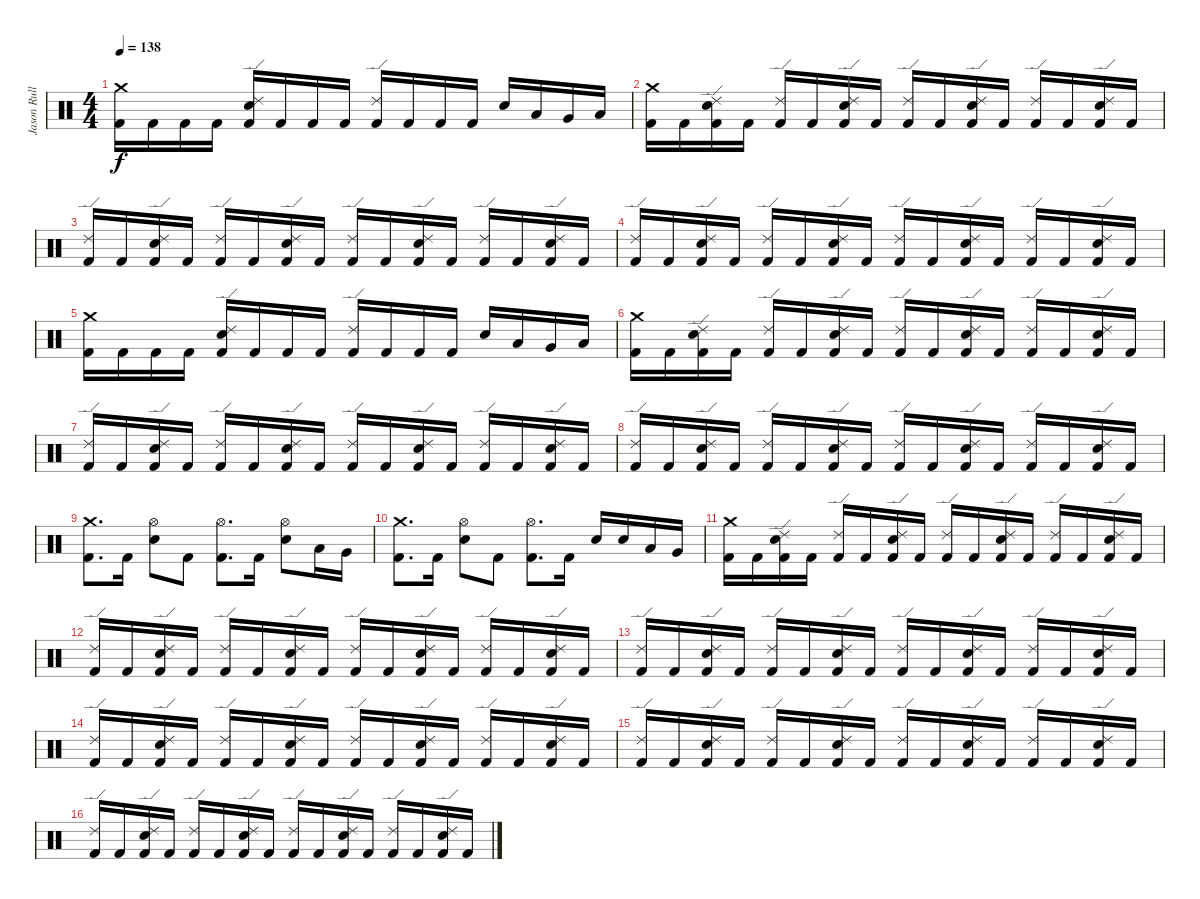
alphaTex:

\track ("Jason Rullo" "Jason Rull") {instrument percussion}
\staff {score}
\articulation defaults
\ts (4 4)
\tempo 138
\clef neutral
\ks c
("Crash medium (hit)" "Kick (hit) 2").16{dy f} "Kick (hit) 2".16 "Kick (hit) 2".16 "Kick (hit) 2".16 ("Ride (edge) 2" "Electric Snare (hit)" "Kick (hit) 2").16 "Kick (hit) 2".16 "Kick (hit) 2".16 "Kick (hit) 2".16 ("Ride (edge) 2" "Kick (hit) 2").16 "Kick (hit) 2".16 "Kick (hit) 2".16 "Kick (hit) 2".16 "Electric Snare (hit)".16 "Low Tom (hit)".16 "Very Low Tom (hit)".16 "Low Floor Tom (hit)".16 |
("Crash medium (hit)" "Kick (hit) 2").16 "Kick (hit) 2".16 ("Ride (edge) 2" "Electric Snare (hit)" "Kick (hit) 2").16 "Kick (hit) 2".16 ("Ride (edge) 2" "Kick (hit) 2").16 "Kick (hit) 2".16 ("Ride (edge) 2" "Electric Snare (hit)" "Kick (hit) 2").16 "Kick (hit) 2".16 ("Ride (edge) 2" "Kick (hit) 2").16 "Kick (hit) 2".16 ("Ride (edge) 2" "Electric Snare (hit)" "Kick (hit) 2").16 "Kick (hit) 2".16 ("Ride (edge) 2" "Kick (hit) 2").16 "Kick (hit) 2".16 ("Ride (edge) 2" "Electric Snare (hit)" "Kick (hit) 2").16 "Kick (hit) 2".16 |
("Ride (edge) 2" "Kick (hit) 2").16 "Kick (hit) 2".16 ("Ride (edge) 2" "Electric Snare (hit)" "Kick (hit) 2").16 "Kick (hit) 2".16 ("Ride (edge) 2" "Kick (hit) 2").16 "Kick (hit) 2".16 ("Ride (edge) 2" "Electric Snare (hit)" "Kick (hit) 2").16 "Kick (hit) 2".16 ("Ride (edge) 2" "Kick (hit) 2").16 "Kick (hit) 2".16 ("Ride (edge) 2" "Electric Snare (hit)" "Kick (hit) 2").16 "Kick (hit) 2".16 ("Ride (edge) 2" "Kick (hit) 2").16 "Kick (hit) 2".16 ("Ride (edge) 2" "Electric Snare (hit)" "Kick (hit) 2").16 "Kick (hit) 2".16 |
("Ride (edge) 2" "Kick (hit) 2").16 "Kick (hit) 2".16 ("Ride (edge) 2" "Electric Snare (hit)" "Kick (hit) 2").16 "Kick (hit) 2".16 ("Ride (edge) 2" "Kick (hit) 2").16 "Kick (hit) 2".16 ("Ride (edge) 2" "Electric Snare (hit)" "Kick (hit) 2").16 "Kick (hit) 2".16 ("Ride (edge) 2" "Kick (hit) 2").16 "Kick (hit) 2".16 ("Ride (edge) 2" "Electric Snare (hit)" "Kick (hit) 2").16 "Kick (hit) 2".16 ("Ride (edge) 2" "Kick (hit) 2").16 "Kick (hit) 2".16 ("Ride (edge) 2" "Electric Snare (hit)" "Kick (hit) 2").16 "Kick (hit) 2".16 |
("Crash medium (hit)" "Kick (hit) 2").16 "Kick (hit) 2".16 "Kick (hit) 2".16 "Kick (hit) 2".16 ("Ride (edge) 2" "Electric Snare (hit)" "Kick (hit) 2").16 "Kick (hit) 2".16 "Kick (hit) 2".16 "Kick (hit) 2".16 ("Ride (edge) 2" "Kick (hit) 2").16 "Kick (hit) 2".16 "Kick (hit) 2".16 "Kick (hit) 2".16 "Electric Snare (hit)".16 "Low Tom (hit)".16 "Very Low Tom (hit)".16 "Low Floor Tom (hit)".16 |
("Crash medium (hit)" "Kick (hit) 2").16 "Kick (hit) 2".16 ("Ride (edge) 2" "Electric Snare (hit)" "Kick (hit) 2").16 "Kick (hit) 2".16 ("Ride (edge) 2" "Kick (hit) 2").16 "Kick (hit) 2".16 ("Ride (edge) 2" "Electric Snare (hit)" "Kick (hit) 2").16 "Kick (hit) 2".16 ("Ride (edge) 2" "Kick (hit) 2").16 "Kick (hit) 2".16 ("Ride (edge) 2" "Electric Snare (hit)" "Kick (hit) 2").16 "Kick (hit) 2".16 ("Ride (edge) 2" "Kick (hit) 2").16 "Kick (hit) 2".16 ("Ride (edge) 2" "Electric Snare (hit)" "Kick (hit) 2").16 "Kick (hit) 2".16 |
("Ride (edge) 2" "Kick (hit) 2").16 "Kick (hit) 2".16 ("Ride (edge) 2" "Electric Snare (hit)" "Kick (hit) 2").16 "Kick (hit) 2".16 ("Ride (edge) 2" "Kick (hit) 2").16 "Kick (hit) 2".16 ("Ride (edge) 2" "Electric Snare (hit)" "Kick (hit) 2").16 "Kick (hit) 2".16 ("Ride (edge) 2" "Kick (hit) 2").16 "Kick (hit) 2".16 ("Ride (edge) 2" "Electric Snare (hit)" "Kick (hit) 2").16 "Kick (hit) 2".16 ("Ride (edge) 2" "Kick (hit) 2").16 "Kick (hit) 2".16 ("Ride (edge) 2" "Electric Snare (hit)" "Kick (hit) 2").16 "Kick (hit) 2".16 |
("Ride (edge) 2" "Kick (hit) 2").16 "Kick (hit) 2".16 ("Ride (edge) 2" "Electric Snare (hit)" "Kick (hit) 2").16 "Kick (hit) 2".16 ("Ride (edge) 2" "Kick (hit) 2").16 "Kick (hit) 2".16 ("Ride (edge) 2" "Electric Snare (hit)" "Kick (hit) 2").16 "Kick (hit) 2".16 ("Ride (edge) 2" "Kick (hit) 2").16 "Kick (hit) 2".16 ("Ride (edge) 2" "Electric Snare (hit)" "Kick (hit) 2").16 "Kick (hit) 2".16 ("Ride (edge) 2" "Kick (hit) 2").16 "Kick (hit) 2".16 ("Ride (edge) 2" "Electric Snare (hit)" "Kick (hit) 2").16 "Kick (hit) 2".16 |
("Crash medium (hit)" "Kick (hit) 2").8{d} "Kick (hit) 2".16 ("Hi-Hat (open)" "Electric Snare (hit)").8 "Kick (hit) 2".8 ("Hi-Hat (open)" "Kick (hit) 2").8{d} "Kick (hit) 2".16 ("Hi-Hat (open)" "Electric Snare (hit)").8 "Low Tom (hit)".16 "Very Low Tom (hit)".16 |
("Crash medium (hit)" "Kick (hit) 2").8{d} "Kick (hit) 2".16 ("Hi-Hat (open)" "Electric Snare (hit)").8 "Kick (hit) 2".8 ("Hi-Hat (open)" "Kick (hit) 2").8{d} "Kick (hit) 2".16 "Electric Snare (hit)".16 "Electric Snare (hit)".16 "Low Tom (hit)".16 "Very Low Tom (hit)".16 |
("Crash medium (hit)" "Kick (hit) 2").16 "Kick (hit) 2".16 ("Ride (edge) 2" "Electric Snare (hit)" "Kick (hit) 2").16 "Kick (hit) 2".16 ("Ride (edge) 2" "Kick (hit) 2").16 "Kick (hit) 2".16 ("Ride (edge) 2" "Electric Snare (hit)" "Kick (hit) 2").16 "Kick (hit) 2".16 ("Ride (edge) 2" "Kick (hit) 2").16 "Kick (hit) 2".16 ("Ride (edge) 2" "Electric Snare (hit)" "Kick (hit) 2").16 "Kick (hit) 2".16 ("Ride (edge) 2" "Kick (hit) 2").16 "Kick (hit) 2".16 ("Ride (edge) 2" "Electric Snare (hit)" "Kick (hit) 2").16 "Kick (hit) 2".16 |
("Ride (edge) 2" "Kick (hit) 2").16 "Kick (hit) 2".16 ("Ride (edge) 2" "Electric Snare (hit)" "Kick (hit) 2").16 "Kick (hit) 2".16 ("Ride (edge) 2" "Kick (hit) 2").16 "Kick (hit) 2".16 ("Ride (edge) 2" "Electric Snare (hit)" "Kick (hit) 2").16 "Kick (hit) 2".16 ("Ride (edge) 2" "Kick (hit) 2").16 "Kick (hit) 2".16 ("Ride (edge) 2" "Electric Snare (hit)" "Kick (hit) 2").16 "Kick (hit) 2".16 ("Ride (edge) 2" "Kick (hit) 2").16 "Kick (hit) 2".16 ("Ride (edge) 2" "Electric Snare (hit)" "Kick (hit) 2").16 "Kick (hit) 2".16 |
("Ride (edge) 2" "Kick (hit) 2").16 "Kick (hit) 2".16 ("Ride (edge) 2" "Electric Snare (hit)" "Kick (hit) 2").16 "Kick (hit) 2".16 ("Ride (edge) 2" "Kick (hit) 2").16 "Kick (hit) 2".16 ("Ride (edge) 2" "Electric Snare (hit)" "Kick (hit) 2").16 "Kick (hit) 2".16 ("Ride (edge) 2" "Kick (hit) 2").16 "Kick (hit) 2".16 ("Ride (edge) 2" "Electric Snare (hit)" "Kick (hit) 2").16 "Kick (hit) 2".16 ("Ride (edge) 2" "Kick (hit) 2").16 "Kick (hit) 2".16 ("Ride (edge) 2" "Electric Snare (hit)" "Kick (hit) 2").16 "Kick (hit) 2".16 |
("Ride (edge) 2" "Kick (hit) 2").16 "Kick (hit) 2".16 ("Ride (edge) 2" "Electric Snare (hit)" "Kick (hit) 2").16 "Kick (hit) 2".16 ("Ride (edge) 2" "Kick (hit) 2").16 "Kick (hit) 2".16 ("Ride (edge) 2" "Electric Snare (hit)" "Kick (hit) 2").16 "Kick (hit) 2".16 ("Ride (edge) 2" "Kick (hit) 2").16 "Kick (hit) 2".16 ("Ride (edge) 2" "Electric Snare (hit)" "Kick (hit) 2").16 "Kick (hit) 2".16 ("Ride (edge) 2" "Kick (hit) 2").16 "Kick (hit) 2".16 ("Ride (edge) 2" "Electric Snare (hit)" "Kick (hit) 2").16 "Kick (hit) 2".16 |
("Ride (edge) 2" "Kick (hit) 2").16 "Kick (hit) 2".16 ("Ride (edge) 2" "Electric Snare (hit)" "Kick (hit) 2").16 "Kick (hit) 2".16 ("Ride (edge) 2" "Kick (hit) 2").16 "Kick (hit) 2".16 ("Ride (edge) 2" "Electric Snare (hit)" "Kick (hit) 2").16 "Kick (hit) 2".16 ("Ride (edge) 2" "Kick (hit) 2").16 "Kick (hit) 2".16 ("Ride (edge) 2" "Electric Snare (hit)" "Kick (hit) 2").16 "Kick (hit) 2".16 ("Ride (edge) 2" "Kick (hit) 2").16 "Kick (hit) 2".16 ("Ride (edge) 2" "Electric Snare (hit)" "Kick (hit) 2").16 "Kick (hit) 2".16 |
("Ride (edge) 2" "Kick (hit) 2").16 "Kick (hit) 2".16 ("Ride (edge) 2" "Electric Snare (hit)" "Kick (hit) 2").16 "Kick (hit) 2".16 ("Ride (edge) 2" "Kick (hit) 2").16 "Kick (hit) 2".16 ("Ride (edge) 2" "Electric Snare (hit)" "Kick (hit) 2").16 "Kick (hit) 2".16 ("Ride (edge) 2" "Kick (hit) 2").16 "Kick (hit) 2".16 ("Ride (edge) 2" "Electric Snare (hit)" "Kick (hit) 2").16 "Kick (hit) 2".16 ("Ride (edge) 2" "Kick (hit) 2").16 "Kick (hit) 2".16 ("Ride (edge) 2" "Electric Snare (hit)" "Kick (hit) 2").16 "Kick (hit) 2".16
